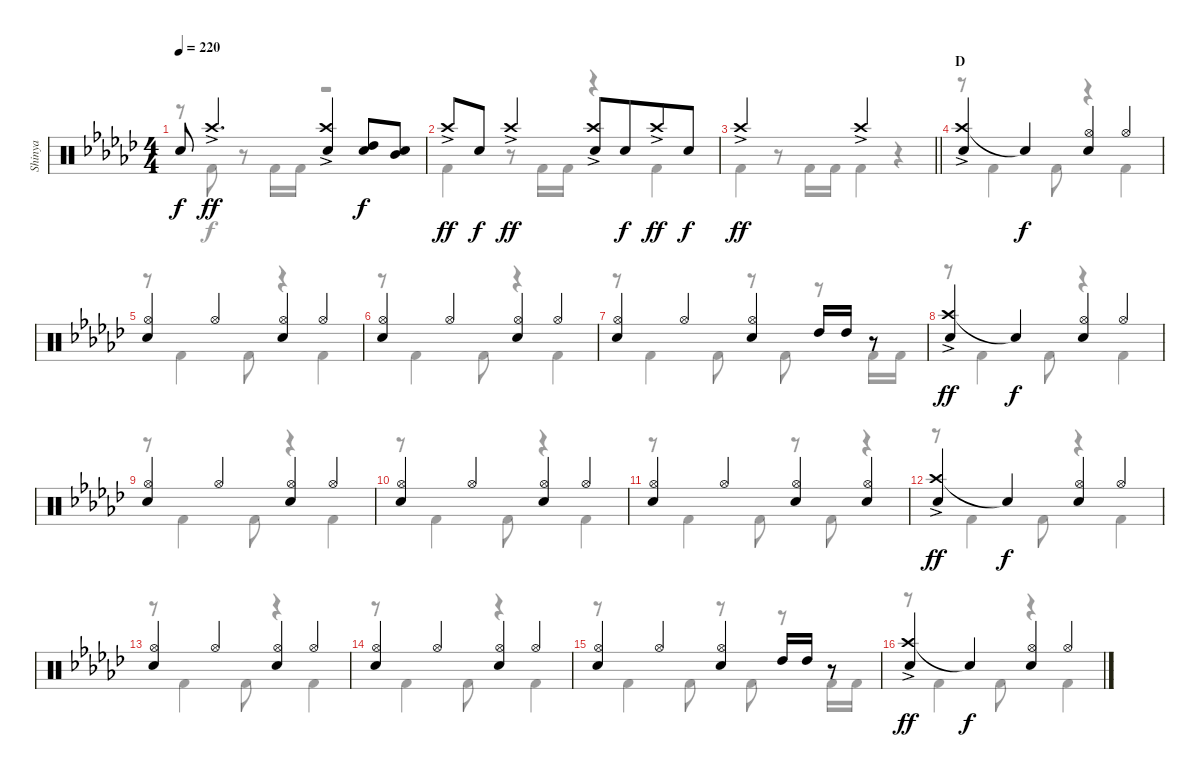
\track ("Shinya" "Shinya") {instrument percussion}
\staff {score}
\articulation defaults
\voice
\ts (4 4)
\tempo 220
\clef neutral
\ks ebminor "Snare (hit) 2".8{dy f} "Crash high (hit)"{ac}.4{d dy ff}
("Crash high (hit)"{ac} "Snare (hit) 2").4 ("High Tom (hit)" "Snare (hit) 2").8{dy f} ("Mid Tom (hit)" "Snare (hit) 2").8 |
"Crash high (hit)"{ac}.8{dy ff} "Snare (hit) 2".8{dy f} "Crash high (hit)"{ac}.4{dy ff} ("Crash high (hit)"{ac} "Snare (hit) 2").8 "Snare (hit) 2".8{dy f beam merge} "Crash high (hit)"{ac}.8{dy ff} "Snare (hit) 2".8{dy f} |
\barLineRight lightlight "Crash high (hit)"{ac}.2{dy ff} "Crash high (hit)"{ac}.2
|
\section ("" "D")
("Crash high (hit)"{ac} "Snare (hit) 2").4 "Snare (hit)"{t}.4{dy f} ("Hi-Hat (open)" "Snare (hit) 2").4 "Hi-Hat (open)".4 |
("Hi-Hat (open)" "Snare (hit) 2").4 "Hi-Hat (open)".4 ("Hi-Hat (open)" "Snare (hit) 2").4 "Hi-Hat (open)".4 |
("Hi-Hat (open)" "Snare (hit) 2").4 "Hi-Hat (open)".4 ("Hi-Hat (open)" "Snare (hit) 2").4 "Hi-Hat (open)".4 |
("Hi-Hat (open)" "Snare (hit) 2").4 "Hi-Hat (open)".4 ("Hi-Hat (open)" "Snare (hit) 2").4 "High Tom (hit)".16 "High Tom (hit)".16 r.8 |
("Crash high (hit)"{ac} "Snare (hit) 2").4{dy ff} "Snare (hit)"{t}.4{dy f} ("Hi-Hat (open)" "Snare (hit) 2").4 "Hi-Hat (open)".4 |
("Hi-Hat (open)" "Snare (hit) 2").4 "Hi-Hat (open)".4 ("Hi-Hat (open)" "Snare (hit) 2").4 "Hi-Hat (open)".4 |
("Hi-Hat (open)" "Snare (hit) 2").4 "Hi-Hat (open)".4 ("Hi-Hat (open)" "Snare (hit) 2").4 "Hi-Hat (open)".4 |
("Hi-Hat (open)" "Snare (hit) 2").4 "Hi-Hat (open)".4 ("Hi-Hat (open)" "Snare (hit) 2").4 ("Hi-Hat (open)" "Snare (hit) 2").4 |
("Crash high (hit)"{ac} "Snare (hit) 2").4{dy ff} "Snare (hit)"{t}.4{dy f} ("Hi-Hat (open)" "Snare (hit) 2").4 "Hi-Hat (open)".4 |
("Hi-Hat (open)" "Snare (hit) 2").4 "Hi-Hat (open)".4 ("Hi-Hat (open)" "Snare (hit) 2").4 "Hi-Hat (open)".4 |
("Hi-Hat (open)" "Snare (hit) 2").4 "Hi-Hat (open)".4 ("Hi-Hat (open)" "Snare (hit) 2").4 "Hi-Hat (open)".4 |
("Hi-Hat (open)" "Snare (hit) 2").4 "Hi-Hat (open)".4 ("Hi-Hat (open)" "Snare (hit) 2").4 "High Tom (hit)".16 "High Tom (hit)".16 r.8 |
("Crash high (hit)"{ac} "Snare (hit) 2").4{dy ff} "Snare (hit)"{t}.4{dy f} ("Hi-Hat (open)" "Snare (hit) 2").4 "Hi-Hat (open)".4
\voice
\clef neutral
\ottava regular
\simile none
\ks ebminor
r.8{dy f} "Kick (hit) 2".8 r.8 "Kick (hit) 2".16 "Kick (hit) 2".16 r.2 |
"Kick (hit) 2".4 r.8 "Kick (hit) 2".16 "Kick (hit) 2".16 r.4 "Kick (hit) 2".4 |
\barLineRight lightlight "Kick (hit) 2".4
r.8 "Kick (hit) 2".16 "Kick (hit) 2".16 "Kick (hit) 2".4 r.4 |
r.8 "Kick (hit) 2".4 "Kick (hit) 2".8 r.4 "Kick (hit) 2".4 |
r.8 "Kick (hit) 2".4 "Kick (hit) 2".8 r.4 "Kick (hit) 2".4 |
r.8 "Kick (hit) 2".4 "Kick (hit) 2".8 r.4 "Kick (hit) 2".4 |
r.8 "Kick (hit) 2".4 "Kick (hit) 2".8 r.8 "Kick (hit) 2".8 r.8 "Kick (hit) 2".16 "Kick (hit) 2".16 |
r.8 "Kick (hit) 2".4 "Kick (hit) 2".8 r.4 "Kick (hit) 2".4 |
r.8 "Kick (hit) 2".4 "Kick (hit) 2".8 r.4 "Kick (hit) 2".4 |
r.8 "Kick (hit) 2".4 "Kick (hit) 2".8 r.4 "Kick (hit) 2".4 |
r.8 "Kick (hit) 2".4 "Kick (hit) 2".8 r.8 "Kick (hit) 2".8 r.4 |
r.8 "Kick (hit) 2".4 "Kick (hit) 2".8 r.4 "Kick (hit) 2".4 |
r.8 "Kick (hit) 2".4 "Kick (hit) 2".8 r.4 "Kick (hit) 2".4 |
r.8 "Kick (hit) 2".4 "Kick (hit) 2".8 r.4 "Kick (hit) 2".4 |
r.8 "Kick (hit) 2".4 "Kick (hit) 2".8 r.8 "Kick (hit) 2".8 r.8 "Kick (hit) 2".16 "Kick (hit) 2".16 |
r.8 "Kick (hit) 2".4 "Kick (hit) 2".8 r.4 "Kick (hit) 2".4
